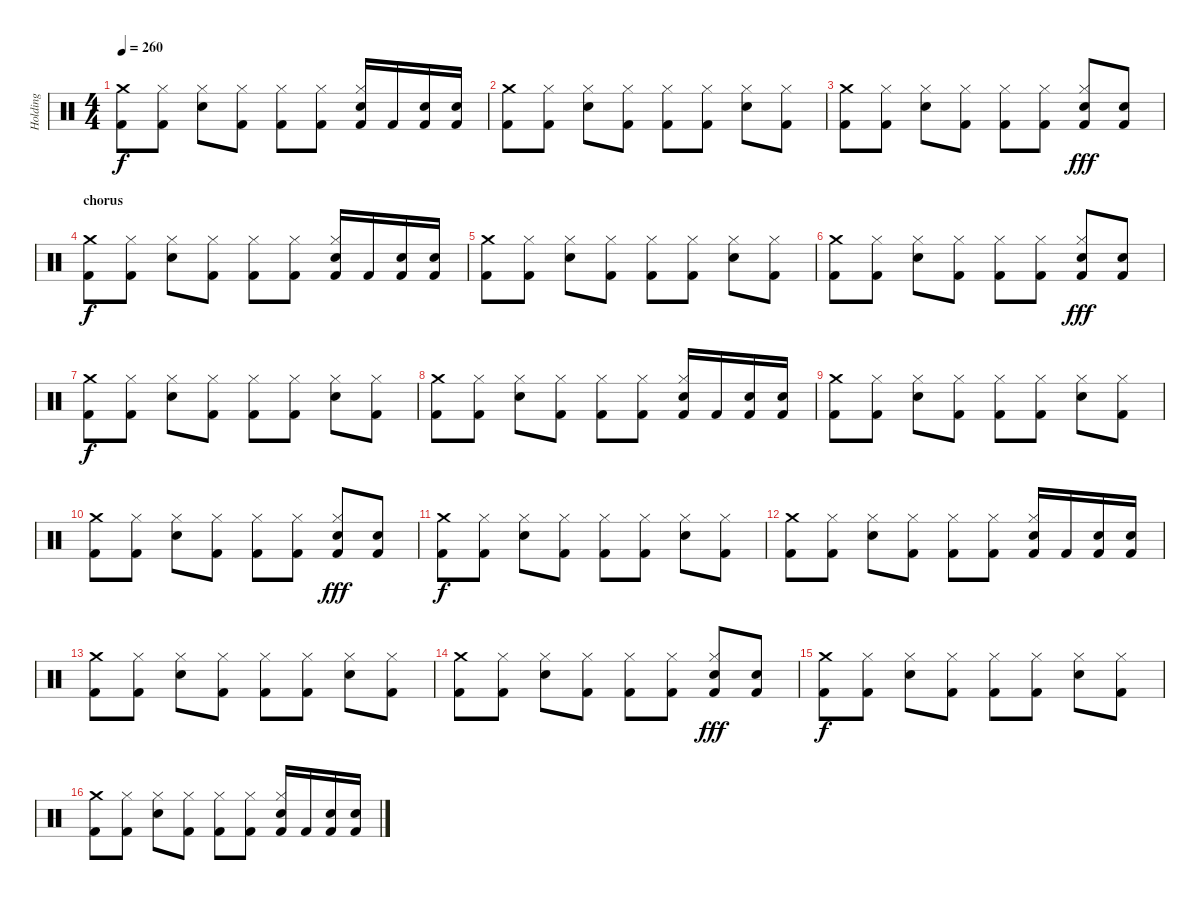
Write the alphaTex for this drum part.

\track ("Holding" "Holding") {instrument percussion}
\staff {score}
\articulation defaults
\ts (4 4)
\tempo 260
\clef neutral
\ks c
("Crash medium (hit)" "Kick (hit) 2").8{dy f} ("Hi-Hat (closed)" "Kick (hit) 2").8 ("Hi-Hat (closed)" "Electric Snare (hit)").8 ("Hi-Hat (closed)" "Kick (hit) 2").8 ("Hi-Hat (closed)" "Kick (hit) 2").8 ("Hi-Hat (closed)" "Kick (hit) 2").8 ("Hi-Hat (closed)" "Electric Snare (hit)" "Kick (hit) 2").16 "Kick (hit) 2".16 ("Electric Snare (hit)" "Kick (hit) 2").16 ("Electric Snare (hit)" "Kick (hit) 2").16 |
("Crash medium (hit)" "Kick (hit) 2").8 ("Hi-Hat (closed)" "Kick (hit) 2").8 ("Hi-Hat (closed)" "Electric Snare (hit)").8 ("Hi-Hat (closed)" "Kick (hit) 2").8 ("Hi-Hat (closed)" "Kick (hit) 2").8 ("Hi-Hat (closed)" "Kick (hit) 2").8 ("Hi-Hat (closed)" "Electric Snare (hit)").8 ("Hi-Hat (closed)" "Kick (hit) 2").8 |
("Crash medium (hit)" "Kick (hit) 2").8 ("Hi-Hat (closed)" "Kick (hit) 2").8 ("Hi-Hat (closed)" "Electric Snare (hit)").8 ("Hi-Hat (closed)" "Kick (hit) 2").8 ("Hi-Hat (closed)" "Kick (hit) 2").8 ("Hi-Hat (closed)" "Kick (hit) 2").8 ("Hi-Hat (closed)" "Electric Snare (hit)" "Kick (hit) 2").8{dy fff} ("Electric Snare (hit)" "Kick (hit) 2").8 |
\section ("" "chorus")
("Crash medium (hit)" "Kick (hit) 2").8{dy f} ("Hi-Hat (closed)" "Kick (hit) 2").8 ("Hi-Hat (closed)" "Electric Snare (hit)").8 ("Hi-Hat (closed)" "Kick (hit) 2").8 ("Hi-Hat (closed)" "Kick (hit) 2").8 ("Hi-Hat (closed)" "Kick (hit) 2").8 ("Hi-Hat (closed)" "Electric Snare (hit)" "Kick (hit) 2").16 "Kick (hit) 2".16 ("Electric Snare (hit)" "Kick (hit) 2").16 ("Electric Snare (hit)" "Kick (hit) 2").16 |
("Crash medium (hit)" "Kick (hit) 2").8 ("Hi-Hat (closed)" "Kick (hit) 2").8 ("Hi-Hat (closed)" "Electric Snare (hit)").8 ("Hi-Hat (closed)" "Kick (hit) 2").8 ("Hi-Hat (closed)" "Kick (hit) 2").8 ("Hi-Hat (closed)" "Kick (hit) 2").8 ("Hi-Hat (closed)" "Electric Snare (hit)").8 ("Hi-Hat (closed)" "Kick (hit) 2").8 |
("Crash medium (hit)" "Kick (hit) 2").8 ("Hi-Hat (closed)" "Kick (hit) 2").8 ("Hi-Hat (closed)" "Electric Snare (hit)").8 ("Hi-Hat (closed)" "Kick (hit) 2").8 ("Hi-Hat (closed)" "Kick (hit) 2").8 ("Hi-Hat (closed)" "Kick (hit) 2").8 ("Hi-Hat (closed)" "Electric Snare (hit)" "Kick (hit) 2").8{dy fff} ("Electric Snare (hit)" "Kick (hit) 2").8 |
("Crash medium (hit)" "Kick (hit) 2").8{dy f} ("Hi-Hat (closed)" "Kick (hit) 2").8 ("Hi-Hat (closed)" "Electric Snare (hit)").8 ("Hi-Hat (closed)" "Kick (hit) 2").8 ("Hi-Hat (closed)" "Kick (hit) 2").8 ("Hi-Hat (closed)" "Kick (hit) 2").8 ("Hi-Hat (closed)" "Electric Snare (hit)").8 ("Hi-Hat (closed)" "Kick (hit) 2").8 |
("Crash medium (hit)" "Kick (hit) 2").8 ("Hi-Hat (closed)" "Kick (hit) 2").8 ("Hi-Hat (closed)" "Electric Snare (hit)").8 ("Hi-Hat (closed)" "Kick (hit) 2").8 ("Hi-Hat (closed)" "Kick (hit) 2").8 ("Hi-Hat (closed)" "Kick (hit) 2").8 ("Hi-Hat (closed)" "Electric Snare (hit)" "Kick (hit) 2").16 "Kick (hit) 2".16 ("Electric Snare (hit)" "Kick (hit) 2").16 ("Electric Snare (hit)" "Kick (hit) 2").16 |
("Crash medium (hit)" "Kick (hit) 2").8 ("Hi-Hat (closed)" "Kick (hit) 2").8 ("Hi-Hat (closed)" "Electric Snare (hit)").8 ("Hi-Hat (closed)" "Kick (hit) 2").8 ("Hi-Hat (closed)" "Kick (hit) 2").8 ("Hi-Hat (closed)" "Kick (hit) 2").8 ("Hi-Hat (closed)" "Electric Snare (hit)").8 ("Hi-Hat (closed)" "Kick (hit) 2").8 |
("Crash medium (hit)" "Kick (hit) 2").8 ("Hi-Hat (closed)" "Kick (hit) 2").8 ("Hi-Hat (closed)" "Electric Snare (hit)").8 ("Hi-Hat (closed)" "Kick (hit) 2").8 ("Hi-Hat (closed)" "Kick (hit) 2").8 ("Hi-Hat (closed)" "Kick (hit) 2").8 ("Hi-Hat (closed)" "Electric Snare (hit)" "Kick (hit) 2").8{dy fff} ("Electric Snare (hit)" "Kick (hit) 2").8 |
("Crash medium (hit)" "Kick (hit) 2").8{dy f} ("Hi-Hat (closed)" "Kick (hit) 2").8 ("Hi-Hat (closed)" "Electric Snare (hit)").8 ("Hi-Hat (closed)" "Kick (hit) 2").8 ("Hi-Hat (closed)" "Kick (hit) 2").8 ("Hi-Hat (closed)" "Kick (hit) 2").8 ("Hi-Hat (closed)" "Electric Snare (hit)").8 ("Hi-Hat (closed)" "Kick (hit) 2").8 |
("Crash medium (hit)" "Kick (hit) 2").8 ("Hi-Hat (closed)" "Kick (hit) 2").8 ("Hi-Hat (closed)" "Electric Snare (hit)").8 ("Hi-Hat (closed)" "Kick (hit) 2").8 ("Hi-Hat (closed)" "Kick (hit) 2").8 ("Hi-Hat (closed)" "Kick (hit) 2").8 ("Hi-Hat (closed)" "Electric Snare (hit)" "Kick (hit) 2").16 "Kick (hit) 2".16 ("Electric Snare (hit)" "Kick (hit) 2").16 ("Electric Snare (hit)" "Kick (hit) 2").16 |
("Crash medium (hit)" "Kick (hit) 2").8 ("Hi-Hat (closed)" "Kick (hit) 2").8 ("Hi-Hat (closed)" "Electric Snare (hit)").8 ("Hi-Hat (closed)" "Kick (hit) 2").8 ("Hi-Hat (closed)" "Kick (hit) 2").8 ("Hi-Hat (closed)" "Kick (hit) 2").8 ("Hi-Hat (closed)" "Electric Snare (hit)").8 ("Hi-Hat (closed)" "Kick (hit) 2").8 |
("Crash medium (hit)" "Kick (hit) 2").8 ("Hi-Hat (closed)" "Kick (hit) 2").8 ("Hi-Hat (closed)" "Electric Snare (hit)").8 ("Hi-Hat (closed)" "Kick (hit) 2").8 ("Hi-Hat (closed)" "Kick (hit) 2").8 ("Hi-Hat (closed)" "Kick (hit) 2").8 ("Hi-Hat (closed)" "Electric Snare (hit)" "Kick (hit) 2").8{dy fff} ("Electric Snare (hit)" "Kick (hit) 2").8 |
("Crash medium (hit)" "Kick (hit) 2").8{dy f} ("Hi-Hat (closed)" "Kick (hit) 2").8 ("Hi-Hat (closed)" "Electric Snare (hit)").8 ("Hi-Hat (closed)" "Kick (hit) 2").8 ("Hi-Hat (closed)" "Kick (hit) 2").8 ("Hi-Hat (closed)" "Kick (hit) 2").8 ("Hi-Hat (closed)" "Electric Snare (hit)").8 ("Hi-Hat (closed)" "Kick (hit) 2").8 |
("Crash medium (hit)" "Kick (hit) 2").8 ("Hi-Hat (closed)" "Kick (hit) 2").8 ("Hi-Hat (closed)" "Electric Snare (hit)").8 ("Hi-Hat (closed)" "Kick (hit) 2").8 ("Hi-Hat (closed)" "Kick (hit) 2").8 ("Hi-Hat (closed)" "Kick (hit) 2").8 ("Hi-Hat (closed)" "Electric Snare (hit)" "Kick (hit) 2").16 "Kick (hit) 2".16 ("Electric Snare (hit)" "Kick (hit) 2").16 ("Electric Snare (hit)" "Kick (hit) 2").16
